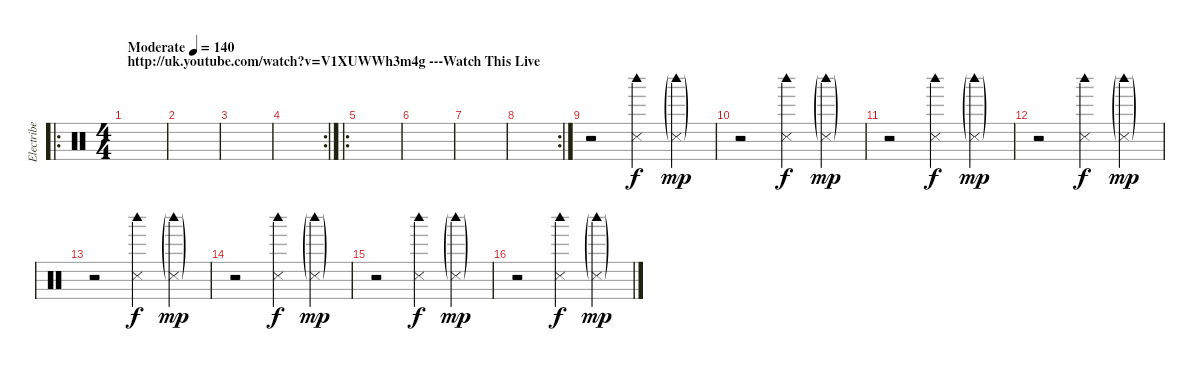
\track ("Electribe Click" "Electribe ") {instrument percussion}
\staff {score}
\articulation defaults
\ro
\ts (4 4)
\section ("" "http://uk.youtube.com/watch?v=V1XUWWh3m4g ---Watch This Live")
\tempo (140 "Moderate")
\clef neutral
\ks c
|
|
|
\rc 2
|
\ro
|
|
|
\rc 2
|
r.2 ("Woodblock high (hit)" "Snare (side stick) 3").4 ("Woodblock high (hit)"{g} "Snare (side stick) 3"{g}).4{dy mp} |
r.2 ("Woodblock high (hit)" "Snare (side stick) 3").4{dy f} ("Woodblock high (hit)"{g} "Snare (side stick) 3"{g}).4{dy mp} |
r.2 ("Woodblock high (hit)" "Snare (side stick) 3").4{dy f} ("Woodblock high (hit)"{g} "Snare (side stick) 3"{g}).4{dy mp} |
r.2 ("Woodblock high (hit)" "Snare (side stick) 3").4{dy f} ("Woodblock high (hit)"{g} "Snare (side stick) 3"{g}).4{dy mp} |
r.2 ("Woodblock high (hit)" "Snare (side stick) 3").4{dy f} ("Woodblock high (hit)"{g} "Snare (side stick) 3"{g}).4{dy mp} |
r.2 ("Woodblock high (hit)" "Snare (side stick) 3").4{dy f} ("Woodblock high (hit)"{g} "Snare (side stick) 3"{g}).4{dy mp} |
r.2 ("Woodblock high (hit)" "Snare (side stick) 3").4{dy f} ("Woodblock high (hit)"{g} "Snare (side stick) 3"{g}).4{dy mp} |
r.2 ("Woodblock high (hit)" "Snare (side stick) 3").4{dy f} ("Woodblock high (hit)"{g} "Snare (side stick) 3"{g}).4{dy mp}
